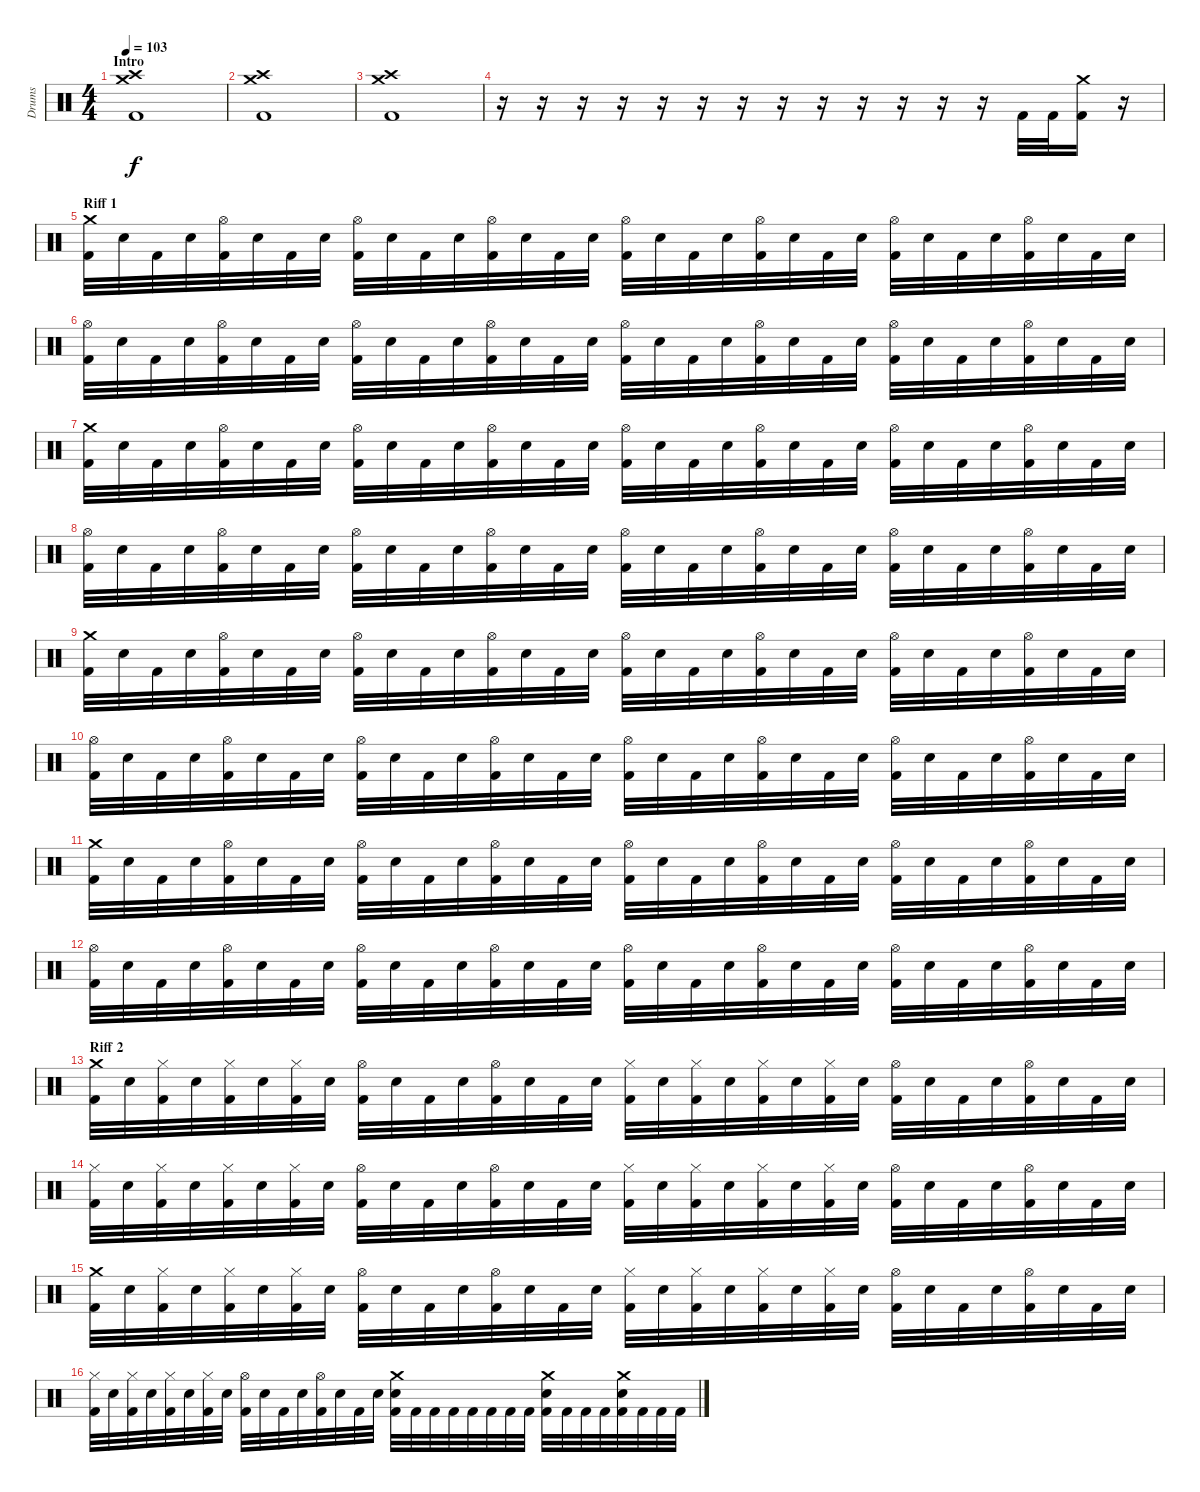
\track ("Drums" "Drums") {instrument percussion}
\staff {score}
\articulation defaults
\ts (4 4)
\section ("" "Intro")
\tempo 103
\clef neutral
\ks c
("Crash high (hit)" "Crash medium (hit)" "Kick (hit) 2").1{dy f} |
("Crash high (hit)" "Crash medium (hit)" "Kick (hit) 2").1 |
("Crash high (hit)" "Crash medium (hit)" "Kick (hit) 2").1 |
r.16 r.16 r.16 r.16 r.16 r.16 r.16 r.16 r.16 r.16 r.16 r.16 r.16 "Kick (hit) 2".32 "Kick (hit) 2".32 ("Crash medium (hit)" "Kick (hit) 2").16 r.16 |
\section ("" "Riff 1")
("Crash medium (hit)" "Kick (hit) 2").32 "Electric Snare (hit)".32 "Kick (hit) 2".32 "Electric Snare (hit)".32 ("Hi-Hat (open)" "Kick (hit) 2").32 "Electric Snare (hit)".32 "Kick (hit) 2".32 "Electric Snare (hit)".32 ("Hi-Hat (open)" "Kick (hit) 2").32 "Electric Snare (hit)".32 "Kick (hit) 2".32 "Electric Snare (hit)".32 ("Hi-Hat (open)" "Kick (hit) 2").32 "Electric Snare (hit)".32 "Kick (hit) 2".32 "Electric Snare (hit)".32 ("Hi-Hat (open)" "Kick (hit) 2").32 "Electric Snare (hit)".32 "Kick (hit) 2".32 "Electric Snare (hit)".32 ("Hi-Hat (open)" "Kick (hit) 2").32 "Electric Snare (hit)".32 "Kick (hit) 2".32 "Electric Snare (hit)".32 ("Hi-Hat (open)" "Kick (hit) 2").32 "Electric Snare (hit)".32 "Kick (hit) 2".32 "Electric Snare (hit)".32 ("Hi-Hat (open)" "Kick (hit) 2").32 "Electric Snare (hit)".32 "Kick (hit) 2".32 "Electric Snare (hit)".32 |
("Hi-Hat (open)" "Kick (hit) 2").32 "Electric Snare (hit)".32 "Kick (hit) 2".32 "Electric Snare (hit)".32 ("Hi-Hat (open)" "Kick (hit) 2").32 "Electric Snare (hit)".32 "Kick (hit) 2".32 "Electric Snare (hit)".32 ("Hi-Hat (open)" "Kick (hit) 2").32 "Electric Snare (hit)".32 "Kick (hit) 2".32 "Electric Snare (hit)".32 ("Hi-Hat (open)" "Kick (hit) 2").32 "Electric Snare (hit)".32 "Kick (hit) 2".32 "Electric Snare (hit)".32 ("Hi-Hat (open)" "Kick (hit) 2").32 "Electric Snare (hit)".32 "Kick (hit) 2".32 "Electric Snare (hit)".32 ("Hi-Hat (open)" "Kick (hit) 2").32 "Electric Snare (hit)".32 "Kick (hit) 2".32 "Electric Snare (hit)".32 ("Hi-Hat (open)" "Kick (hit) 2").32 "Electric Snare (hit)".32 "Kick (hit) 2".32 "Electric Snare (hit)".32 ("Hi-Hat (open)" "Kick (hit) 2").32 "Electric Snare (hit)".32 "Kick (hit) 2".32 "Electric Snare (hit)".32 |
("Crash medium (hit)" "Kick (hit) 2").32 "Electric Snare (hit)".32 "Kick (hit) 2".32 "Electric Snare (hit)".32 ("Hi-Hat (open)" "Kick (hit) 2").32 "Electric Snare (hit)".32 "Kick (hit) 2".32 "Electric Snare (hit)".32 ("Hi-Hat (open)" "Kick (hit) 2").32 "Electric Snare (hit)".32 "Kick (hit) 2".32 "Electric Snare (hit)".32 ("Hi-Hat (open)" "Kick (hit) 2").32 "Electric Snare (hit)".32 "Kick (hit) 2".32 "Electric Snare (hit)".32 ("Hi-Hat (open)" "Kick (hit) 2").32 "Electric Snare (hit)".32 "Kick (hit) 2".32 "Electric Snare (hit)".32 ("Hi-Hat (open)" "Kick (hit) 2").32 "Electric Snare (hit)".32 "Kick (hit) 2".32 "Electric Snare (hit)".32 ("Hi-Hat (open)" "Kick (hit) 2").32 "Electric Snare (hit)".32 "Kick (hit) 2".32 "Electric Snare (hit)".32 ("Hi-Hat (open)" "Kick (hit) 2").32 "Electric Snare (hit)".32 "Kick (hit) 2".32 "Electric Snare (hit)".32 |
("Hi-Hat (open)" "Kick (hit) 2").32 "Electric Snare (hit)".32 "Kick (hit) 2".32 "Electric Snare (hit)".32 ("Hi-Hat (open)" "Kick (hit) 2").32 "Electric Snare (hit)".32 "Kick (hit) 2".32 "Electric Snare (hit)".32 ("Hi-Hat (open)" "Kick (hit) 2").32 "Electric Snare (hit)".32 "Kick (hit) 2".32 "Electric Snare (hit)".32 ("Hi-Hat (open)" "Kick (hit) 2").32 "Electric Snare (hit)".32 "Kick (hit) 2".32 "Electric Snare (hit)".32 ("Hi-Hat (open)" "Kick (hit) 2").32 "Electric Snare (hit)".32 "Kick (hit) 2".32 "Electric Snare (hit)".32 ("Hi-Hat (open)" "Kick (hit) 2").32 "Electric Snare (hit)".32 "Kick (hit) 2".32 "Electric Snare (hit)".32 ("Hi-Hat (open)" "Kick (hit) 2").32 "Electric Snare (hit)".32 "Kick (hit) 2".32 "Electric Snare (hit)".32 ("Hi-Hat (open)" "Kick (hit) 2").32 "Electric Snare (hit)".32 "Kick (hit) 2".32 "Electric Snare (hit)".32 |
("Crash medium (hit)" "Kick (hit) 2").32 "Electric Snare (hit)".32 "Kick (hit) 2".32 "Electric Snare (hit)".32 ("Hi-Hat (open)" "Kick (hit) 2").32 "Electric Snare (hit)".32 "Kick (hit) 2".32 "Electric Snare (hit)".32 ("Hi-Hat (open)" "Kick (hit) 2").32 "Electric Snare (hit)".32 "Kick (hit) 2".32 "Electric Snare (hit)".32 ("Hi-Hat (open)" "Kick (hit) 2").32 "Electric Snare (hit)".32 "Kick (hit) 2".32 "Electric Snare (hit)".32 ("Hi-Hat (open)" "Kick (hit) 2").32 "Electric Snare (hit)".32 "Kick (hit) 2".32 "Electric Snare (hit)".32 ("Hi-Hat (open)" "Kick (hit) 2").32 "Electric Snare (hit)".32 "Kick (hit) 2".32 "Electric Snare (hit)".32 ("Hi-Hat (open)" "Kick (hit) 2").32 "Electric Snare (hit)".32 "Kick (hit) 2".32 "Electric Snare (hit)".32 ("Hi-Hat (open)" "Kick (hit) 2").32 "Electric Snare (hit)".32 "Kick (hit) 2".32 "Electric Snare (hit)".32 |
("Hi-Hat (open)" "Kick (hit) 2").32 "Electric Snare (hit)".32 "Kick (hit) 2".32 "Electric Snare (hit)".32 ("Hi-Hat (open)" "Kick (hit) 2").32 "Electric Snare (hit)".32 "Kick (hit) 2".32 "Electric Snare (hit)".32 ("Hi-Hat (open)" "Kick (hit) 2").32 "Electric Snare (hit)".32 "Kick (hit) 2".32 "Electric Snare (hit)".32 ("Hi-Hat (open)" "Kick (hit) 2").32 "Electric Snare (hit)".32 "Kick (hit) 2".32 "Electric Snare (hit)".32 ("Hi-Hat (open)" "Kick (hit) 2").32 "Electric Snare (hit)".32 "Kick (hit) 2".32 "Electric Snare (hit)".32 ("Hi-Hat (open)" "Kick (hit) 2").32 "Electric Snare (hit)".32 "Kick (hit) 2".32 "Electric Snare (hit)".32 ("Hi-Hat (open)" "Kick (hit) 2").32 "Electric Snare (hit)".32 "Kick (hit) 2".32 "Electric Snare (hit)".32 ("Hi-Hat (open)" "Kick (hit) 2").32 "Electric Snare (hit)".32 "Kick (hit) 2".32 "Electric Snare (hit)".32 |
("Crash medium (hit)" "Kick (hit) 2").32 "Electric Snare (hit)".32 "Kick (hit) 2".32 "Electric Snare (hit)".32 ("Hi-Hat (open)" "Kick (hit) 2").32 "Electric Snare (hit)".32 "Kick (hit) 2".32 "Electric Snare (hit)".32 ("Hi-Hat (open)" "Kick (hit) 2").32 "Electric Snare (hit)".32 "Kick (hit) 2".32 "Electric Snare (hit)".32 ("Hi-Hat (open)" "Kick (hit) 2").32 "Electric Snare (hit)".32 "Kick (hit) 2".32 "Electric Snare (hit)".32 ("Hi-Hat (open)" "Kick (hit) 2").32 "Electric Snare (hit)".32 "Kick (hit) 2".32 "Electric Snare (hit)".32 ("Hi-Hat (open)" "Kick (hit) 2").32 "Electric Snare (hit)".32 "Kick (hit) 2".32 "Electric Snare (hit)".32 ("Hi-Hat (open)" "Kick (hit) 2").32 "Electric Snare (hit)".32 "Kick (hit) 2".32 "Electric Snare (hit)".32 ("Hi-Hat (open)" "Kick (hit) 2").32 "Electric Snare (hit)".32 "Kick (hit) 2".32 "Electric Snare (hit)".32 |
("Hi-Hat (open)" "Kick (hit) 2").32 "Electric Snare (hit)".32 "Kick (hit) 2".32 "Electric Snare (hit)".32 ("Hi-Hat (open)" "Kick (hit) 2").32 "Electric Snare (hit)".32 "Kick (hit) 2".32 "Electric Snare (hit)".32 ("Hi-Hat (open)" "Kick (hit) 2").32 "Electric Snare (hit)".32 "Kick (hit) 2".32 "Electric Snare (hit)".32 ("Hi-Hat (open)" "Kick (hit) 2").32 "Electric Snare (hit)".32 "Kick (hit) 2".32 "Electric Snare (hit)".32 ("Hi-Hat (open)" "Kick (hit) 2").32 "Electric Snare (hit)".32 "Kick (hit) 2".32 "Electric Snare (hit)".32 ("Hi-Hat (open)" "Kick (hit) 2").32 "Electric Snare (hit)".32 "Kick (hit) 2".32 "Electric Snare (hit)".32 ("Hi-Hat (open)" "Kick (hit) 2").32 "Electric Snare (hit)".32 "Kick (hit) 2".32 "Electric Snare (hit)".32 ("Hi-Hat (open)" "Kick (hit) 2").32 "Electric Snare (hit)".32 "Kick (hit) 2".32 "Electric Snare (hit)".32 |
\section ("" "Riff 2")
("Crash medium (hit)" "Kick (hit) 2").32 "Electric Snare (hit)".32 ("Hi-Hat (closed)" "Kick (hit) 2").32 "Electric Snare (hit)".32 ("Hi-Hat (closed)" "Kick (hit) 2").32 "Electric Snare (hit)".32 ("Hi-Hat (closed)" "Kick (hit) 2").32 "Electric Snare (hit)".32 ("Hi-Hat (open)" "Kick (hit) 2").32 "Electric Snare (hit)".32 "Kick (hit) 2".32 "Electric Snare (hit)".32 ("Hi-Hat (open)" "Kick (hit) 2").32 "Electric Snare (hit)".32 "Kick (hit) 2".32 "Electric Snare (hit)".32 ("Hi-Hat (closed)" "Kick (hit) 2").32 "Electric Snare (hit)".32 ("Hi-Hat (closed)" "Kick (hit) 2").32 "Electric Snare (hit)".32 ("Hi-Hat (closed)" "Kick (hit) 2").32 "Electric Snare (hit)".32 ("Hi-Hat (closed)" "Kick (hit) 2").32 "Electric Snare (hit)".32 ("Hi-Hat (open)" "Kick (hit) 2").32 "Electric Snare (hit)".32 "Kick (hit) 2".32 "Electric Snare (hit)".32 ("Hi-Hat (open)" "Kick (hit) 2").32 "Electric Snare (hit)".32 "Kick (hit) 2".32 "Electric Snare (hit)".32 |
("Hi-Hat (closed)" "Kick (hit) 2").32 "Electric Snare (hit)".32 ("Hi-Hat (closed)" "Kick (hit) 2").32 "Electric Snare (hit)".32 ("Hi-Hat (closed)" "Kick (hit) 2").32 "Electric Snare (hit)".32 ("Hi-Hat (closed)" "Kick (hit) 2").32 "Electric Snare (hit)".32 ("Hi-Hat (open)" "Kick (hit) 2").32 "Electric Snare (hit)".32 "Kick (hit) 2".32 "Electric Snare (hit)".32 ("Hi-Hat (open)" "Kick (hit) 2").32 "Electric Snare (hit)".32 "Kick (hit) 2".32 "Electric Snare (hit)".32 ("Hi-Hat (closed)" "Kick (hit) 2").32 "Electric Snare (hit)".32 ("Hi-Hat (closed)" "Kick (hit) 2").32 "Electric Snare (hit)".32 ("Hi-Hat (closed)" "Kick (hit) 2").32 "Electric Snare (hit)".32 ("Hi-Hat (closed)" "Kick (hit) 2").32 "Electric Snare (hit)".32 ("Hi-Hat (open)" "Kick (hit) 2").32 "Electric Snare (hit)".32 "Kick (hit) 2".32 "Electric Snare (hit)".32 ("Hi-Hat (open)" "Kick (hit) 2").32 "Electric Snare (hit)".32 "Kick (hit) 2".32 "Electric Snare (hit)".32 |
("Crash medium (hit)" "Kick (hit) 2").32 "Electric Snare (hit)".32 ("Hi-Hat (closed)" "Kick (hit) 2").32 "Electric Snare (hit)".32 ("Hi-Hat (closed)" "Kick (hit) 2").32 "Electric Snare (hit)".32 ("Hi-Hat (closed)" "Kick (hit) 2").32 "Electric Snare (hit)".32 ("Hi-Hat (open)" "Kick (hit) 2").32 "Electric Snare (hit)".32 "Kick (hit) 2".32 "Electric Snare (hit)".32 ("Hi-Hat (open)" "Kick (hit) 2").32 "Electric Snare (hit)".32 "Kick (hit) 2".32 "Electric Snare (hit)".32 ("Hi-Hat (closed)" "Kick (hit) 2").32 "Electric Snare (hit)".32 ("Hi-Hat (closed)" "Kick (hit) 2").32 "Electric Snare (hit)".32 ("Hi-Hat (closed)" "Kick (hit) 2").32 "Electric Snare (hit)".32 ("Hi-Hat (closed)" "Kick (hit) 2").32 "Electric Snare (hit)".32 ("Hi-Hat (open)" "Kick (hit) 2").32 "Electric Snare (hit)".32 "Kick (hit) 2".32 "Electric Snare (hit)".32 ("Hi-Hat (open)" "Kick (hit) 2").32 "Electric Snare (hit)".32 "Kick (hit) 2".32 "Electric Snare (hit)".32 |
("Hi-Hat (closed)" "Kick (hit) 2").32 "Electric Snare (hit)".32 ("Hi-Hat (closed)" "Kick (hit) 2").32 "Electric Snare (hit)".32 ("Hi-Hat (closed)" "Kick (hit) 2").32 "Electric Snare (hit)".32 ("Hi-Hat (closed)" "Kick (hit) 2").32 "Electric Snare (hit)".32 ("Hi-Hat (open)" "Kick (hit) 2").32 "Electric Snare (hit)".32 "Kick (hit) 2".32 "Electric Snare (hit)".32 ("Hi-Hat (open)" "Kick (hit) 2").32 "Electric Snare (hit)".32 "Kick (hit) 2".32 "Electric Snare (hit)".32 ("Crash medium (hit)" "Electric Snare (hit)" "Kick (hit) 2").32 "Kick (hit) 2".32 "Kick (hit) 2".32 "Kick (hit) 2".32 "Kick (hit) 2".32 "Kick (hit) 2".32 "Kick (hit) 2".32 "Kick (hit) 2".32 ("Crash medium (hit)" "Electric Snare (hit)" "Kick (hit) 2").32 "Kick (hit) 2".32 "Kick (hit) 2".32 "Kick (hit) 2".32 ("Crash medium (hit)" "Electric Snare (hit)" "Kick (hit) 2").32 "Kick (hit) 2".32 "Kick (hit) 2".32 "Kick (hit) 2".32
